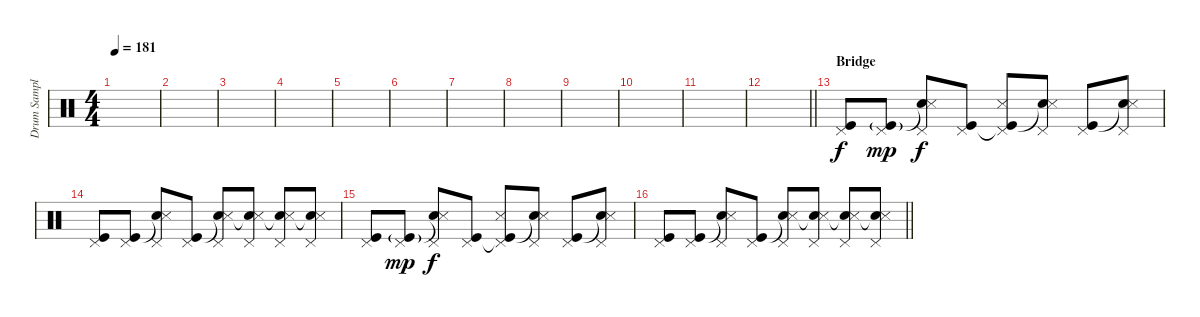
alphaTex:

\track ("Drum Sample" "Drum Sampl") {instrument percussion}
\staff {score}
\articulation defaults
\ts (4 4)
\tempo 181
\clef neutral
\ks c
|
|
|
|
|
|
|
|
|
|
|
\barLineRight lightlight
|
\section ("" "Bridge")
("Kick (hit)" "Pedal Hi-Hat (hit)").8 ("Kick (hit)"{g} "Pedal Hi-Hat (hit)").8{dy mp} ("Snare (hit)"{t} "Snare (side stick) 3" "Pedal Hi-Hat (hit)").8{dy f} ("Kick (hit)" "Pedal Hi-Hat (hit)").8 ("Kick (hit)"{t} "Metronome (hit)" "Pedal Hi-Hat (hit)").8 ("Snare (hit)"{t} "Snare (side stick) 3" "Pedal Hi-Hat (hit)").8 ("Kick (hit)" "Pedal Hi-Hat (hit)").8 ("Snare (hit)"{t} "Snare (side stick) 3" "Pedal Hi-Hat (hit)").8 |
("Kick (hit)" "Pedal Hi-Hat (hit)").8 ("Kick (hit)" "Pedal Hi-Hat (hit)").8 ("Snare (hit)"{t} "Snare (side stick) 3" "Pedal Hi-Hat (hit)").8 ("Kick (hit)" "Pedal Hi-Hat (hit)").8 ("Snare (hit)"{t} "Metronome (hit)" "Pedal Hi-Hat (hit)").8 ("Snare (hit)"{t} "Metronome (hit)" "Pedal Hi-Hat (hit)").8 ("Snare (hit)"{t} "Snare (side stick) 3" "Pedal Hi-Hat (hit)").8 ("Snare (hit)"{t} "Snare (side stick) 3" "Pedal Hi-Hat (hit)").8 |
("Kick (hit)" "Pedal Hi-Hat (hit)").8 ("Kick (hit)"{g} "Pedal Hi-Hat (hit)").8{dy mp} ("Snare (hit)"{t} "Snare (side stick) 3" "Pedal Hi-Hat (hit)").8{dy f} ("Kick (hit)" "Pedal Hi-Hat (hit)").8 ("Kick (hit)"{t} "Metronome (hit)" "Pedal Hi-Hat (hit)").8 ("Snare (hit)"{t} "Snare (side stick) 3" "Pedal Hi-Hat (hit)").8 ("Kick (hit)" "Pedal Hi-Hat (hit)").8 ("Snare (hit)"{t} "Snare (side stick) 3" "Pedal Hi-Hat (hit)").8 |
\barLineRight lightlight
("Kick (hit)" "Pedal Hi-Hat (hit)").8 ("Kick (hit)" "Pedal Hi-Hat (hit)").8 ("Snare (hit)"{t} "Snare (side stick) 3" "Pedal Hi-Hat (hit)").8 ("Kick (hit)" "Pedal Hi-Hat (hit)").8 ("Snare (hit)"{t} "Metronome (hit)" "Pedal Hi-Hat (hit)").8 ("Snare (hit)"{t} "Metronome (hit)" "Pedal Hi-Hat (hit)").8 ("Snare (hit)"{t} "Snare (side stick) 3" "Pedal Hi-Hat (hit)").8 ("Snare (hit)"{t} "Snare (side stick) 3" "Pedal Hi-Hat (hit)").8
